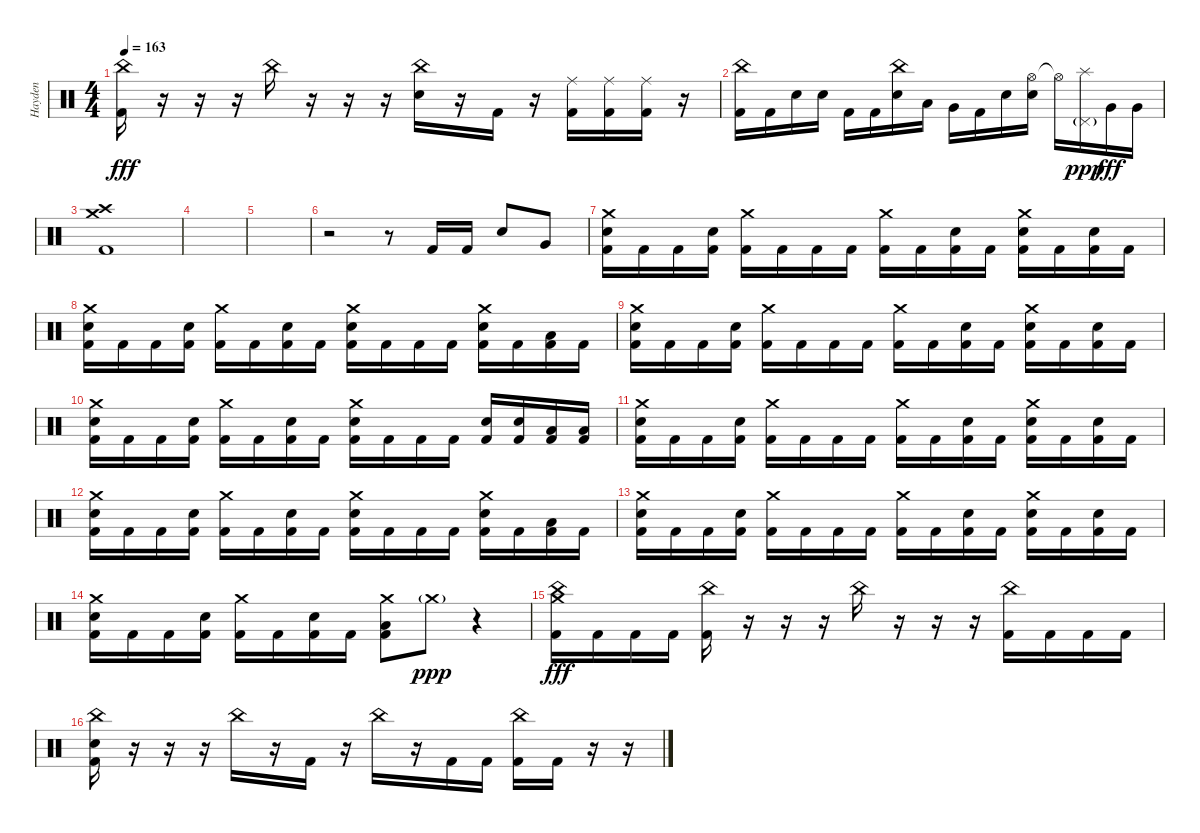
\track ("Hayden" "Hayden") {instrument percussion}
\staff {score}
\articulation defaults
\ts (4 4)
\tempo 163
\clef neutral
\ks c
("China (hit)" "Kick (hit) 2").16{dy fff} r.16 r.16 r.16 "China (hit)".16 r.16 r.16 r.16 ("China (hit)" "Electric Snare (hit)").16 r.16 "Kick (hit) 2".16 r.16 ("Ride (middle)" "Kick (hit) 2").16 ("Ride (middle)" "Kick (hit) 2").16 ("Ride (middle)" "Kick (hit) 2").16 r.16 |
("China (hit)" "Kick (hit) 2").16 "Kick (hit) 2".16 "Electric Snare (hit)".16 "Electric Snare (hit)".16 "Kick (hit) 2".16 "Kick (hit) 2".16 ("China (hit)" "Electric Snare (hit)").16 "Low Tom (hit)".16 "Very Low Tom (hit)".16 "Kick (hit) 2".16 "Electric Snare (hit)".16 ("Hi-Hat (open)" "Electric Snare (hit)").16 "Hi-Hat (open)"{t}.16 ("Splash (hit)" "Pedal Hi-Hat (hit)"{g}).16{dy ppp} "Very Low Tom (hit)".16{dy fff} "Very Low Tom (hit)".16 |
("Crash medium (hit)" "Crash high (hit)" "Kick (hit) 2").1 |
|
|
r.2 r.8 "Kick (hit) 2".16 "Kick (hit) 2".16 "Electric Snare (hit)".8 "Very Low Tom (hit)".8 |
("Crash medium (hit)" "Electric Snare (hit)" "Kick (hit) 2").16 "Kick (hit) 2".16 "Kick (hit) 2".16 ("Electric Snare (hit)" "Kick (hit) 2").16 ("Crash medium (hit)" "Kick (hit) 2").16 "Kick (hit) 2".16 "Kick (hit) 2".16 "Kick (hit) 2".16 ("Crash medium (hit)" "Kick (hit) 2").16 "Kick (hit) 2".16 ("Electric Snare (hit)" "Kick (hit) 2").16 "Kick (hit) 2".16 ("Crash medium (hit)" "Electric Snare (hit)" "Kick (hit) 2").16 "Kick (hit) 2".16 ("Electric Snare (hit)" "Kick (hit) 2").16 "Kick (hit) 2".16 |
("Crash medium (hit)" "Electric Snare (hit)" "Kick (hit) 2").16 "Kick (hit) 2".16 "Kick (hit) 2".16 ("Electric Snare (hit)" "Kick (hit) 2").16 ("Crash medium (hit)" "Kick (hit) 2").16 "Kick (hit) 2".16 ("Electric Snare (hit)" "Kick (hit) 2").16 "Kick (hit) 2".16 ("Crash medium (hit)" "Electric Snare (hit)" "Kick (hit) 2").16 "Kick (hit) 2".16 "Kick (hit) 2".16 "Kick (hit) 2".16 ("Crash medium (hit)" "Electric Snare (hit)" "Kick (hit) 2").16 "Kick (hit) 2".16 ("Low Tom (hit)" "Kick (hit) 2").16 "Kick (hit) 2".16 |
("Crash medium (hit)" "Electric Snare (hit)" "Kick (hit) 2").16 "Kick (hit) 2".16 "Kick (hit) 2".16 ("Electric Snare (hit)" "Kick (hit) 2").16 ("Crash medium (hit)" "Kick (hit) 2").16 "Kick (hit) 2".16 "Kick (hit) 2".16 "Kick (hit) 2".16 ("Crash medium (hit)" "Kick (hit) 2").16 "Kick (hit) 2".16 ("Electric Snare (hit)" "Kick (hit) 2").16 "Kick (hit) 2".16 ("Crash medium (hit)" "Electric Snare (hit)" "Kick (hit) 2").16 "Kick (hit) 2".16 ("Electric Snare (hit)" "Kick (hit) 2").16 "Kick (hit) 2".16 |
("Crash medium (hit)" "Electric Snare (hit)" "Kick (hit) 2").16 "Kick (hit) 2".16 "Kick (hit) 2".16 ("Electric Snare (hit)" "Kick (hit) 2").16 ("Crash medium (hit)" "Kick (hit) 2").16 "Kick (hit) 2".16 ("Electric Snare (hit)" "Kick (hit) 2").16 "Kick (hit) 2".16 ("Crash medium (hit)" "Electric Snare (hit)" "Kick (hit) 2").16 "Kick (hit) 2".16 "Kick (hit) 2".16 "Kick (hit) 2".16 ("Electric Snare (hit)" "Kick (hit) 2").16 ("Electric Snare (hit)" "Kick (hit) 2").16 ("Low Tom (hit)" "Kick (hit) 2").16 ("Low Tom (hit)" "Kick (hit) 2").16 |
("Crash medium (hit)" "Electric Snare (hit)" "Kick (hit) 2").16 "Kick (hit) 2".16 "Kick (hit) 2".16 ("Electric Snare (hit)" "Kick (hit) 2").16 ("Crash medium (hit)" "Kick (hit) 2").16 "Kick (hit) 2".16 "Kick (hit) 2".16 "Kick (hit) 2".16 ("Crash medium (hit)" "Kick (hit) 2").16 "Kick (hit) 2".16 ("Electric Snare (hit)" "Kick (hit) 2").16 "Kick (hit) 2".16 ("Crash medium (hit)" "Electric Snare (hit)" "Kick (hit) 2").16 "Kick (hit) 2".16 ("Electric Snare (hit)" "Kick (hit) 2").16 "Kick (hit) 2".16 |
("Crash medium (hit)" "Electric Snare (hit)" "Kick (hit) 2").16 "Kick (hit) 2".16 "Kick (hit) 2".16 ("Electric Snare (hit)" "Kick (hit) 2").16 ("Crash medium (hit)" "Kick (hit) 2").16 "Kick (hit) 2".16 ("Electric Snare (hit)" "Kick (hit) 2").16 "Kick (hit) 2".16 ("Crash medium (hit)" "Electric Snare (hit)" "Kick (hit) 2").16 "Kick (hit) 2".16 "Kick (hit) 2".16 "Kick (hit) 2".16 ("Crash medium (hit)" "Electric Snare (hit)" "Kick (hit) 2").16 "Kick (hit) 2".16 ("Low Tom (hit)" "Kick (hit) 2").16 "Kick (hit) 2".16 |
("Crash medium (hit)" "Electric Snare (hit)" "Kick (hit) 2").16 "Kick (hit) 2".16 "Kick (hit) 2".16 ("Electric Snare (hit)" "Kick (hit) 2").16 ("Crash medium (hit)" "Kick (hit) 2").16 "Kick (hit) 2".16 "Kick (hit) 2".16 "Kick (hit) 2".16 ("Crash medium (hit)" "Kick (hit) 2").16 "Kick (hit) 2".16 ("Electric Snare (hit)" "Kick (hit) 2").16 "Kick (hit) 2".16 ("Crash medium (hit)" "Electric Snare (hit)" "Kick (hit) 2").16 "Kick (hit) 2".16 ("Electric Snare (hit)" "Kick (hit) 2").16 "Kick (hit) 2".16 |
("Crash medium (hit)" "Electric Snare (hit)" "Kick (hit) 2").16 "Kick (hit) 2".16 "Kick (hit) 2".16 ("Electric Snare (hit)" "Kick (hit) 2").16 ("Crash medium (hit)" "Kick (hit) 2").16 "Kick (hit) 2".16 ("Electric Snare (hit)" "Kick (hit) 2").16 "Kick (hit) 2".16 ("Crash medium (hit)" "Low Tom (hit)" "Kick (hit) 2").8 "Crash medium (hit)"{g}.8{dy ppp} r.4 |
("Crash medium (hit)" "China (hit)" "Kick (hit) 2").16{dy fff} "Kick (hit) 2".16 "Kick (hit) 2".16 "Kick (hit) 2".16 ("China (hit)" "Kick (hit) 2").16 r.16 r.16 r.16 "China (hit)".16 r.16 r.16 r.16 ("China (hit)" "Kick (hit) 2").16 "Kick (hit) 2".16 "Kick (hit) 2".16 "Kick (hit) 2".16 |
("China (hit)" "Electric Snare (hit)" "Kick (hit) 2").16 r.16 r.16 r.16 "China (hit)".16 r.16 "Kick (hit) 2".16 r.16 "China (hit)".16 r.16 "Kick (hit) 2".16 "Kick (hit) 2".16 ("China (hit)" "Kick (hit) 2").16 "Kick (hit) 2".16 r.16 r.16
